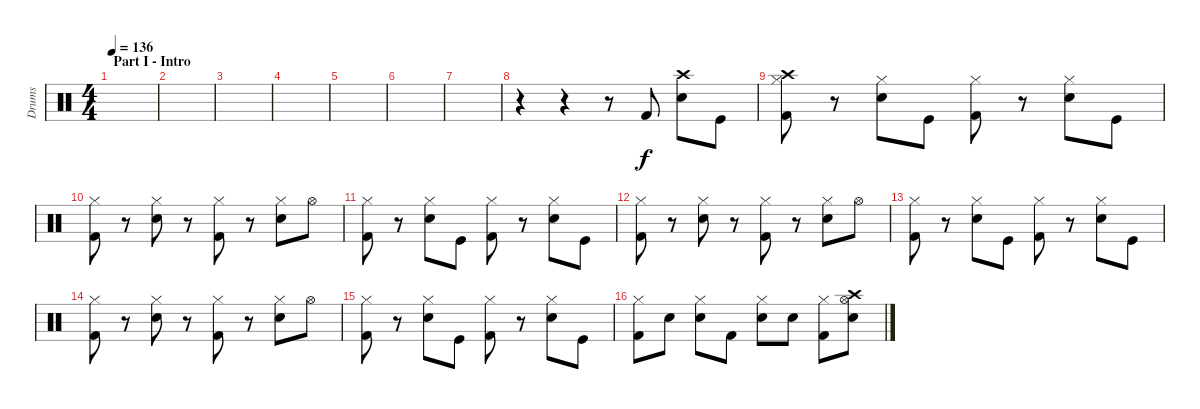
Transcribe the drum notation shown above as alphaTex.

\track ("Drums" "Drums") {instrument percussion}
\staff {score}
\articulation defaults
\ts (4 4)
\section ("" "Part I - Intro")
\tempo 136
\clef neutral
\ks c
|
|
|
|
|
|
|
r.4 r.4 r.8 "Kick (hit) 2".8 ("Crash high (hit)" "Snare (hit) 2").8 "Kick (hit)".8 |
("Hi-Hat (closed)" "Crash high (hit)" "Kick (hit) 2").8 r.8 ("Hi-Hat (closed)" "Snare (hit) 2").8 "Kick (hit)".8 ("Hi-Hat (closed)" "Kick (hit) 2").8 r.8 ("Hi-Hat (closed)" "Snare (hit) 2").8 "Kick (hit)".8 |
("Hi-Hat (closed)" "Kick (hit) 2").8 r.8 ("Hi-Hat (closed)" "Snare (hit) 2").8 r.8 ("Hi-Hat (closed)" "Kick (hit) 2").8 r.8 ("Hi-Hat (closed)" "Snare (hit) 2").8 "Hi-Hat (open)".8 |
("Hi-Hat (closed)" "Kick (hit) 2").8 r.8 ("Hi-Hat (closed)" "Snare (hit) 2").8 "Kick (hit)".8 ("Hi-Hat (closed)" "Kick (hit) 2").8 r.8 ("Hi-Hat (closed)" "Snare (hit) 2").8 "Kick (hit)".8 |
("Hi-Hat (closed)" "Kick (hit) 2").8 r.8 ("Hi-Hat (closed)" "Snare (hit) 2").8 r.8 ("Hi-Hat (closed)" "Kick (hit) 2").8 r.8 ("Hi-Hat (closed)" "Snare (hit) 2").8 "Hi-Hat (open)".8 |
("Hi-Hat (closed)" "Kick (hit) 2").8 r.8 ("Hi-Hat (closed)" "Snare (hit) 2").8 "Kick (hit)".8 ("Hi-Hat (closed)" "Kick (hit) 2").8 r.8 ("Hi-Hat (closed)" "Snare (hit) 2").8 "Kick (hit)".8 |
("Hi-Hat (closed)" "Kick (hit) 2").8 r.8 ("Hi-Hat (closed)" "Snare (hit) 2").8 r.8 ("Hi-Hat (closed)" "Kick (hit) 2").8 r.8 ("Hi-Hat (closed)" "Snare (hit) 2").8 "Hi-Hat (open)".8 |
("Hi-Hat (closed)" "Kick (hit) 2").8 r.8 ("Hi-Hat (closed)" "Snare (hit) 2").8 "Kick (hit)".8 ("Hi-Hat (closed)" "Kick (hit) 2").8 r.8 ("Hi-Hat (closed)" "Snare (hit) 2").8 "Kick (hit)".8 |
("Hi-Hat (closed)" "Kick (hit) 2").8 "Snare (hit) 2".8 ("Hi-Hat (closed)" "Snare (hit) 2").8 "Kick (hit) 2".8 ("Hi-Hat (closed)" "Snare (hit) 2").8 "Snare (hit) 2".8 ("Hi-Hat (closed)" "Kick (hit) 2").8 ("Hi-Hat (open)" "Crash high (hit)" "Snare (hit) 2").8
